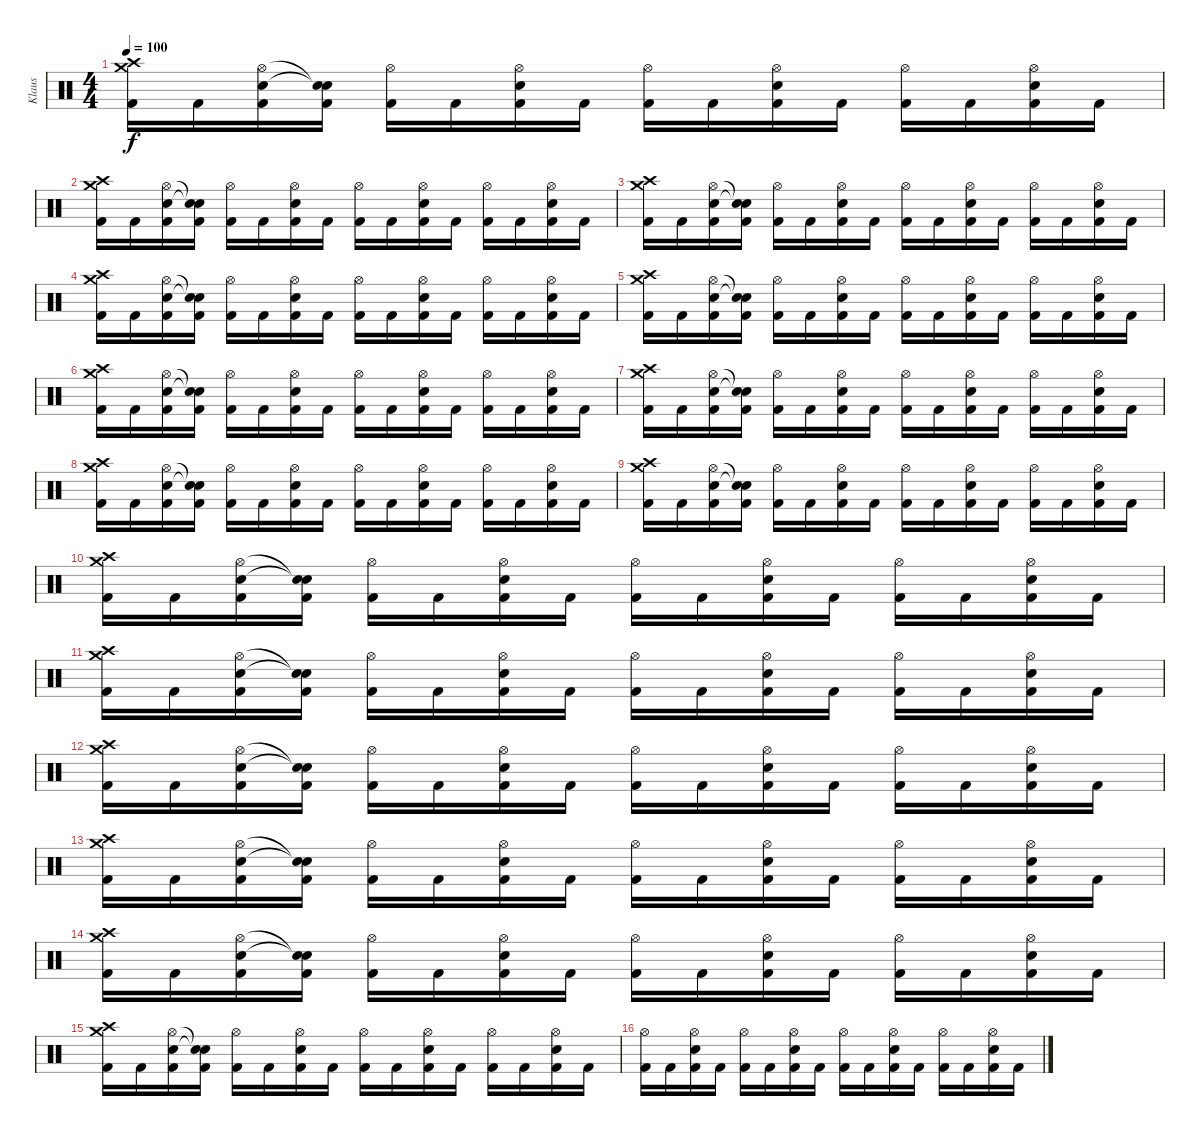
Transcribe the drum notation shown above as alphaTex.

\track ("Klaus" "Klaus") {instrument percussion}
\staff {score}
\articulation defaults
\ts (4 4)
\tempo 100
\clef neutral
\ks c
("Crash high (hit)" "Crash medium (hit)" "Kick (hit) 2").16{dy f} "Kick (hit) 2".16 ("Hi-Hat (open)" "Electric Snare (hit)" "Kick (hit) 2").16 ("Snare (hit)"{t} "Snare (hit)"{t} "Kick (hit) 2").16 ("Hi-Hat (open)" "Kick (hit) 2").16 "Kick (hit) 2".16 ("Hi-Hat (open)" "Electric Snare (hit)" "Kick (hit) 2").16 "Kick (hit) 2".16 ("Hi-Hat (open)" "Kick (hit) 2").16 "Kick (hit) 2".16 ("Hi-Hat (open)" "Electric Snare (hit)" "Kick (hit) 2").16 "Kick (hit) 2".16 ("Hi-Hat (open)" "Kick (hit) 2").16 "Kick (hit) 2".16 ("Hi-Hat (open)" "Electric Snare (hit)" "Kick (hit) 2").16 "Kick (hit) 2".16 |
("Crash high (hit)" "Crash medium (hit)" "Kick (hit) 2").16 "Kick (hit) 2".16 ("Hi-Hat (open)" "Electric Snare (hit)" "Kick (hit) 2").16 ("Snare (hit)"{t} "Snare (hit)"{t} "Kick (hit) 2").16 ("Hi-Hat (open)" "Kick (hit) 2").16 "Kick (hit) 2".16 ("Hi-Hat (open)" "Electric Snare (hit)" "Kick (hit) 2").16 "Kick (hit) 2".16 ("Hi-Hat (open)" "Kick (hit) 2").16 "Kick (hit) 2".16 ("Hi-Hat (open)" "Electric Snare (hit)" "Kick (hit) 2").16 "Kick (hit) 2".16 ("Hi-Hat (open)" "Kick (hit) 2").16 "Kick (hit) 2".16 ("Hi-Hat (open)" "Electric Snare (hit)" "Kick (hit) 2").16 "Kick (hit) 2".16 |
("Crash high (hit)" "Crash medium (hit)" "Kick (hit) 2").16 "Kick (hit) 2".16 ("Hi-Hat (open)" "Electric Snare (hit)" "Kick (hit) 2").16 ("Snare (hit)"{t} "Snare (hit)"{t} "Kick (hit) 2").16 ("Hi-Hat (open)" "Kick (hit) 2").16 "Kick (hit) 2".16 ("Hi-Hat (open)" "Electric Snare (hit)" "Kick (hit) 2").16 "Kick (hit) 2".16 ("Hi-Hat (open)" "Kick (hit) 2").16 "Kick (hit) 2".16 ("Hi-Hat (open)" "Electric Snare (hit)" "Kick (hit) 2").16 "Kick (hit) 2".16 ("Hi-Hat (open)" "Kick (hit) 2").16 "Kick (hit) 2".16 ("Hi-Hat (open)" "Electric Snare (hit)" "Kick (hit) 2").16 "Kick (hit) 2".16 |
("Crash high (hit)" "Crash medium (hit)" "Kick (hit) 2").16 "Kick (hit) 2".16 ("Hi-Hat (open)" "Electric Snare (hit)" "Kick (hit) 2").16 ("Snare (hit)"{t} "Snare (hit)"{t} "Kick (hit) 2").16 ("Hi-Hat (open)" "Kick (hit) 2").16 "Kick (hit) 2".16 ("Hi-Hat (open)" "Electric Snare (hit)" "Kick (hit) 2").16 "Kick (hit) 2".16 ("Hi-Hat (open)" "Kick (hit) 2").16 "Kick (hit) 2".16 ("Hi-Hat (open)" "Electric Snare (hit)" "Kick (hit) 2").16 "Kick (hit) 2".16 ("Hi-Hat (open)" "Kick (hit) 2").16 "Kick (hit) 2".16 ("Hi-Hat (open)" "Electric Snare (hit)" "Kick (hit) 2").16 "Kick (hit) 2".16 |
("Crash high (hit)" "Crash medium (hit)" "Kick (hit) 2").16 "Kick (hit) 2".16 ("Hi-Hat (open)" "Electric Snare (hit)" "Kick (hit) 2").16 ("Snare (hit)"{t} "Snare (hit)"{t} "Kick (hit) 2").16 ("Hi-Hat (open)" "Kick (hit) 2").16 "Kick (hit) 2".16 ("Hi-Hat (open)" "Electric Snare (hit)" "Kick (hit) 2").16 "Kick (hit) 2".16 ("Hi-Hat (open)" "Kick (hit) 2").16 "Kick (hit) 2".16 ("Hi-Hat (open)" "Electric Snare (hit)" "Kick (hit) 2").16 "Kick (hit) 2".16 ("Hi-Hat (open)" "Kick (hit) 2").16 "Kick (hit) 2".16 ("Hi-Hat (open)" "Electric Snare (hit)" "Kick (hit) 2").16 "Kick (hit) 2".16 |
("Crash high (hit)" "Crash medium (hit)" "Kick (hit) 2").16 "Kick (hit) 2".16 ("Hi-Hat (open)" "Electric Snare (hit)" "Kick (hit) 2").16 ("Snare (hit)"{t} "Snare (hit)"{t} "Kick (hit) 2").16 ("Hi-Hat (open)" "Kick (hit) 2").16 "Kick (hit) 2".16 ("Hi-Hat (open)" "Electric Snare (hit)" "Kick (hit) 2").16 "Kick (hit) 2".16 ("Hi-Hat (open)" "Kick (hit) 2").16 "Kick (hit) 2".16 ("Hi-Hat (open)" "Electric Snare (hit)" "Kick (hit) 2").16 "Kick (hit) 2".16 ("Hi-Hat (open)" "Kick (hit) 2").16 "Kick (hit) 2".16 ("Hi-Hat (open)" "Electric Snare (hit)" "Kick (hit) 2").16 "Kick (hit) 2".16 |
("Crash high (hit)" "Crash medium (hit)" "Kick (hit) 2").16 "Kick (hit) 2".16 ("Hi-Hat (open)" "Electric Snare (hit)" "Kick (hit) 2").16 ("Snare (hit)"{t} "Snare (hit)"{t} "Kick (hit) 2").16 ("Hi-Hat (open)" "Kick (hit) 2").16 "Kick (hit) 2".16 ("Hi-Hat (open)" "Electric Snare (hit)" "Kick (hit) 2").16 "Kick (hit) 2".16 ("Hi-Hat (open)" "Kick (hit) 2").16 "Kick (hit) 2".16 ("Hi-Hat (open)" "Electric Snare (hit)" "Kick (hit) 2").16 "Kick (hit) 2".16 ("Hi-Hat (open)" "Kick (hit) 2").16 "Kick (hit) 2".16 ("Hi-Hat (open)" "Electric Snare (hit)" "Kick (hit) 2").16 "Kick (hit) 2".16 |
("Crash high (hit)" "Crash medium (hit)" "Kick (hit) 2").16 "Kick (hit) 2".16 ("Hi-Hat (open)" "Electric Snare (hit)" "Kick (hit) 2").16 ("Snare (hit)"{t} "Snare (hit)"{t} "Kick (hit) 2").16 ("Hi-Hat (open)" "Kick (hit) 2").16 "Kick (hit) 2".16 ("Hi-Hat (open)" "Electric Snare (hit)" "Kick (hit) 2").16 "Kick (hit) 2".16 ("Hi-Hat (open)" "Kick (hit) 2").16 "Kick (hit) 2".16 ("Hi-Hat (open)" "Electric Snare (hit)" "Kick (hit) 2").16 "Kick (hit) 2".16 ("Hi-Hat (open)" "Kick (hit) 2").16 "Kick (hit) 2".16 ("Hi-Hat (open)" "Electric Snare (hit)" "Kick (hit) 2").16 "Kick (hit) 2".16 |
("Crash high (hit)" "Crash medium (hit)" "Kick (hit) 2").16 "Kick (hit) 2".16 ("Hi-Hat (open)" "Electric Snare (hit)" "Kick (hit) 2").16 ("Snare (hit)"{t} "Snare (hit)"{t} "Kick (hit) 2").16 ("Hi-Hat (open)" "Kick (hit) 2").16 "Kick (hit) 2".16 ("Hi-Hat (open)" "Electric Snare (hit)" "Kick (hit) 2").16 "Kick (hit) 2".16 ("Hi-Hat (open)" "Kick (hit) 2").16 "Kick (hit) 2".16 ("Hi-Hat (open)" "Electric Snare (hit)" "Kick (hit) 2").16 "Kick (hit) 2".16 ("Hi-Hat (open)" "Kick (hit) 2").16 "Kick (hit) 2".16 ("Hi-Hat (open)" "Electric Snare (hit)" "Kick (hit) 2").16 "Kick (hit) 2".16 |
("Crash high (hit)" "Crash medium (hit)" "Kick (hit) 2").16 "Kick (hit) 2".16 ("Hi-Hat (open)" "Electric Snare (hit)" "Kick (hit) 2").16 ("Snare (hit)"{t} "Snare (hit)"{t} "Kick (hit) 2").16 ("Hi-Hat (open)" "Kick (hit) 2").16 "Kick (hit) 2".16 ("Hi-Hat (open)" "Electric Snare (hit)" "Kick (hit) 2").16 "Kick (hit) 2".16 ("Hi-Hat (open)" "Kick (hit) 2").16 "Kick (hit) 2".16 ("Hi-Hat (open)" "Electric Snare (hit)" "Kick (hit) 2").16 "Kick (hit) 2".16 ("Hi-Hat (open)" "Kick (hit) 2").16 "Kick (hit) 2".16 ("Hi-Hat (open)" "Electric Snare (hit)" "Kick (hit) 2").16 "Kick (hit) 2".16 |
("Crash high (hit)" "Crash medium (hit)" "Kick (hit) 2").16 "Kick (hit) 2".16 ("Hi-Hat (open)" "Electric Snare (hit)" "Kick (hit) 2").16 ("Snare (hit)"{t} "Snare (hit)"{t} "Kick (hit) 2").16 ("Hi-Hat (open)" "Kick (hit) 2").16 "Kick (hit) 2".16 ("Hi-Hat (open)" "Electric Snare (hit)" "Kick (hit) 2").16 "Kick (hit) 2".16 ("Hi-Hat (open)" "Kick (hit) 2").16 "Kick (hit) 2".16 ("Hi-Hat (open)" "Electric Snare (hit)" "Kick (hit) 2").16 "Kick (hit) 2".16 ("Hi-Hat (open)" "Kick (hit) 2").16 "Kick (hit) 2".16 ("Hi-Hat (open)" "Electric Snare (hit)" "Kick (hit) 2").16 "Kick (hit) 2".16 |
("Crash high (hit)" "Crash medium (hit)" "Kick (hit) 2").16 "Kick (hit) 2".16 ("Hi-Hat (open)" "Electric Snare (hit)" "Kick (hit) 2").16 ("Snare (hit)"{t} "Snare (hit)"{t} "Kick (hit) 2").16 ("Hi-Hat (open)" "Kick (hit) 2").16 "Kick (hit) 2".16 ("Hi-Hat (open)" "Electric Snare (hit)" "Kick (hit) 2").16 "Kick (hit) 2".16 ("Hi-Hat (open)" "Kick (hit) 2").16 "Kick (hit) 2".16 ("Hi-Hat (open)" "Electric Snare (hit)" "Kick (hit) 2").16 "Kick (hit) 2".16 ("Hi-Hat (open)" "Kick (hit) 2").16 "Kick (hit) 2".16 ("Hi-Hat (open)" "Electric Snare (hit)" "Kick (hit) 2").16 "Kick (hit) 2".16 |
("Crash high (hit)" "Crash medium (hit)" "Kick (hit) 2").16 "Kick (hit) 2".16 ("Hi-Hat (open)" "Electric Snare (hit)" "Kick (hit) 2").16 ("Snare (hit)"{t} "Snare (hit)"{t} "Kick (hit) 2").16 ("Hi-Hat (open)" "Kick (hit) 2").16 "Kick (hit) 2".16 ("Hi-Hat (open)" "Electric Snare (hit)" "Kick (hit) 2").16 "Kick (hit) 2".16 ("Hi-Hat (open)" "Kick (hit) 2").16 "Kick (hit) 2".16 ("Hi-Hat (open)" "Electric Snare (hit)" "Kick (hit) 2").16 "Kick (hit) 2".16 ("Hi-Hat (open)" "Kick (hit) 2").16 "Kick (hit) 2".16 ("Hi-Hat (open)" "Electric Snare (hit)" "Kick (hit) 2").16 "Kick (hit) 2".16 |
("Crash high (hit)" "Crash medium (hit)" "Kick (hit) 2").16 "Kick (hit) 2".16 ("Hi-Hat (open)" "Electric Snare (hit)" "Kick (hit) 2").16 ("Snare (hit)"{t} "Snare (hit)"{t} "Kick (hit) 2").16 ("Hi-Hat (open)" "Kick (hit) 2").16 "Kick (hit) 2".16 ("Hi-Hat (open)" "Electric Snare (hit)" "Kick (hit) 2").16 "Kick (hit) 2".16 ("Hi-Hat (open)" "Kick (hit) 2").16 "Kick (hit) 2".16 ("Hi-Hat (open)" "Electric Snare (hit)" "Kick (hit) 2").16 "Kick (hit) 2".16 ("Hi-Hat (open)" "Kick (hit) 2").16 "Kick (hit) 2".16 ("Hi-Hat (open)" "Electric Snare (hit)" "Kick (hit) 2").16 "Kick (hit) 2".16 |
("Crash high (hit)" "Crash medium (hit)" "Kick (hit) 2").16 "Kick (hit) 2".16 ("Hi-Hat (open)" "Electric Snare (hit)" "Kick (hit) 2").16 ("Snare (hit)"{t} "Snare (hit)"{t} "Kick (hit) 2").16 ("Hi-Hat (open)" "Kick (hit) 2").16 "Kick (hit) 2".16 ("Hi-Hat (open)" "Electric Snare (hit)" "Kick (hit) 2").16 "Kick (hit) 2".16 ("Hi-Hat (open)" "Kick (hit) 2").16 "Kick (hit) 2".16 ("Hi-Hat (open)" "Electric Snare (hit)" "Kick (hit) 2").16 "Kick (hit) 2".16 ("Hi-Hat (open)" "Kick (hit) 2").16 "Kick (hit) 2".16 ("Hi-Hat (open)" "Electric Snare (hit)" "Kick (hit) 2").16 "Kick (hit) 2".16 |
("Hi-Hat (open)" "Kick (hit) 2").16 "Kick (hit) 2".16 ("Hi-Hat (open)" "Electric Snare (hit)" "Kick (hit) 2").16 "Kick (hit) 2".16 ("Hi-Hat (open)" "Kick (hit) 2").16 "Kick (hit) 2".16 ("Hi-Hat (open)" "Electric Snare (hit)" "Kick (hit) 2").16 "Kick (hit) 2".16 ("Hi-Hat (open)" "Kick (hit) 2").16 "Kick (hit) 2".16 ("Hi-Hat (open)" "Electric Snare (hit)" "Kick (hit) 2").16 "Kick (hit) 2".16 ("Hi-Hat (open)" "Kick (hit) 2").16 "Kick (hit) 2".16 ("Hi-Hat (open)" "Electric Snare (hit)" "Kick (hit) 2").16 "Kick (hit) 2".16
